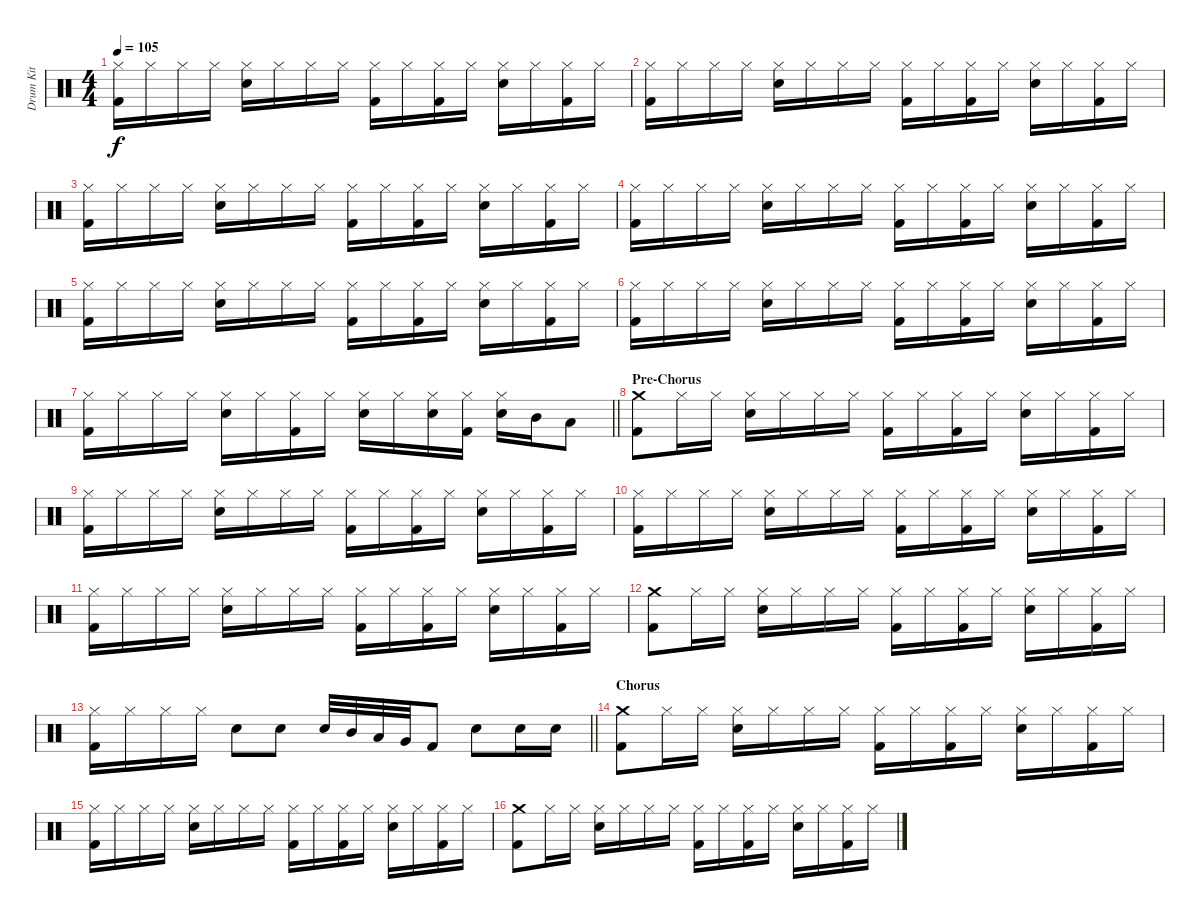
\track ("Drum Kit" "Drum Kit") {instrument percussion}
\staff {score}
\articulation defaults
\ts (4 4)
\tempo 105
\clef neutral
\ks c
("Hi-Hat (closed)" "Kick (hit) 2").16{dy f} "Hi-Hat (closed)".16 "Hi-Hat (closed)".16 "Hi-Hat (closed)".16 ("Hi-Hat (closed)" "Electric Snare (hit)").16 "Hi-Hat (closed)".16 "Hi-Hat (closed)".16 "Hi-Hat (closed)".16 ("Hi-Hat (closed)" "Kick (hit) 2").16 "Hi-Hat (closed)".16 ("Hi-Hat (closed)" "Kick (hit) 2").16 "Hi-Hat (closed)".16 ("Hi-Hat (closed)" "Electric Snare (hit)").16 "Hi-Hat (closed)".16 ("Hi-Hat (closed)" "Kick (hit) 2").16 "Hi-Hat (closed)".16 |
("Hi-Hat (closed)" "Kick (hit) 2").16 "Hi-Hat (closed)".16 "Hi-Hat (closed)".16 "Hi-Hat (closed)".16 ("Hi-Hat (closed)" "Electric Snare (hit)").16 "Hi-Hat (closed)".16 "Hi-Hat (closed)".16 "Hi-Hat (closed)".16 ("Hi-Hat (closed)" "Kick (hit) 2").16 "Hi-Hat (closed)".16 ("Hi-Hat (closed)" "Kick (hit) 2").16 "Hi-Hat (closed)".16 ("Hi-Hat (closed)" "Electric Snare (hit)").16 "Hi-Hat (closed)".16 ("Hi-Hat (closed)" "Kick (hit) 2").16 "Hi-Hat (closed)".16 |
("Hi-Hat (closed)" "Kick (hit) 2").16 "Hi-Hat (closed)".16 "Hi-Hat (closed)".16 "Hi-Hat (closed)".16 ("Hi-Hat (closed)" "Electric Snare (hit)").16 "Hi-Hat (closed)".16 "Hi-Hat (closed)".16 "Hi-Hat (closed)".16 ("Hi-Hat (closed)" "Kick (hit) 2").16 "Hi-Hat (closed)".16 ("Hi-Hat (closed)" "Kick (hit) 2").16 "Hi-Hat (closed)".16 ("Hi-Hat (closed)" "Electric Snare (hit)").16 "Hi-Hat (closed)".16 ("Hi-Hat (closed)" "Kick (hit) 2").16 "Hi-Hat (closed)".16 |
("Hi-Hat (closed)" "Kick (hit) 2").16 "Hi-Hat (closed)".16 "Hi-Hat (closed)".16 "Hi-Hat (closed)".16 ("Hi-Hat (closed)" "Electric Snare (hit)").16 "Hi-Hat (closed)".16 "Hi-Hat (closed)".16 "Hi-Hat (closed)".16 ("Hi-Hat (closed)" "Kick (hit) 2").16 "Hi-Hat (closed)".16 ("Hi-Hat (closed)" "Kick (hit) 2").16 "Hi-Hat (closed)".16 ("Hi-Hat (closed)" "Electric Snare (hit)").16 "Hi-Hat (closed)".16 ("Hi-Hat (closed)" "Kick (hit) 2").16 "Hi-Hat (closed)".16 |
("Hi-Hat (closed)" "Kick (hit) 2").16 "Hi-Hat (closed)".16 "Hi-Hat (closed)".16 "Hi-Hat (closed)".16 ("Hi-Hat (closed)" "Electric Snare (hit)").16 "Hi-Hat (closed)".16 "Hi-Hat (closed)".16 "Hi-Hat (closed)".16 ("Hi-Hat (closed)" "Kick (hit) 2").16 "Hi-Hat (closed)".16 ("Hi-Hat (closed)" "Kick (hit) 2").16 "Hi-Hat (closed)".16 ("Hi-Hat (closed)" "Electric Snare (hit)").16 "Hi-Hat (closed)".16 ("Hi-Hat (closed)" "Kick (hit) 2").16 "Hi-Hat (closed)".16 |
("Hi-Hat (closed)" "Kick (hit) 2").16 "Hi-Hat (closed)".16 "Hi-Hat (closed)".16 "Hi-Hat (closed)".16 ("Hi-Hat (closed)" "Electric Snare (hit)").16 "Hi-Hat (closed)".16 "Hi-Hat (closed)".16 "Hi-Hat (closed)".16 ("Hi-Hat (closed)" "Kick (hit) 2").16 "Hi-Hat (closed)".16 ("Hi-Hat (closed)" "Kick (hit) 2").16 "Hi-Hat (closed)".16 ("Hi-Hat (closed)" "Electric Snare (hit)").16 "Hi-Hat (closed)".16 ("Hi-Hat (closed)" "Kick (hit) 2").16 "Hi-Hat (closed)".16 |
\barLineRight lightlight
("Hi-Hat (closed)" "Kick (hit) 2").16 "Hi-Hat (closed)".16 "Hi-Hat (closed)".16 "Hi-Hat (closed)".16 ("Hi-Hat (closed)" "Electric Snare (hit)").16 "Hi-Hat (closed)".16 ("Hi-Hat (closed)" "Kick (hit) 2").16 "Hi-Hat (closed)".16 ("Hi-Hat (closed)" "Electric Snare (hit)").16 "Hi-Hat (closed)".16 ("Hi-Hat (closed)" "Electric Snare (hit)").16 ("Hi-Hat (closed)" "Kick (hit) 2").16 ("Hi-Hat (closed)" "Electric Snare (hit)").16 "Mid Tom (hit)".16 "Low Tom (hit)".8 |
\section ("" "Pre-Chorus")
("Crash medium (hit)" "Kick (hit) 2").8 "Hi-Hat (closed)".16 "Hi-Hat (closed)".16 ("Hi-Hat (closed)" "Electric Snare (hit)").16 "Hi-Hat (closed)".16 "Hi-Hat (closed)".16 "Hi-Hat (closed)".16 ("Hi-Hat (closed)" "Kick (hit) 2").16 "Hi-Hat (closed)".16 ("Hi-Hat (closed)" "Kick (hit) 2").16 "Hi-Hat (closed)".16 ("Hi-Hat (closed)" "Electric Snare (hit)").16 "Hi-Hat (closed)".16 ("Hi-Hat (closed)" "Kick (hit) 2").16 "Hi-Hat (closed)".16 |
("Hi-Hat (closed)" "Kick (hit) 2").16 "Hi-Hat (closed)".16 "Hi-Hat (closed)".16 "Hi-Hat (closed)".16 ("Hi-Hat (closed)" "Electric Snare (hit)").16 "Hi-Hat (closed)".16 "Hi-Hat (closed)".16 "Hi-Hat (closed)".16 ("Hi-Hat (closed)" "Kick (hit) 2").16 "Hi-Hat (closed)".16 ("Hi-Hat (closed)" "Kick (hit) 2").16 "Hi-Hat (closed)".16 ("Hi-Hat (closed)" "Electric Snare (hit)").16 "Hi-Hat (closed)".16 ("Hi-Hat (closed)" "Kick (hit) 2").16 "Hi-Hat (closed)".16 |
("Hi-Hat (closed)" "Kick (hit) 2").16 "Hi-Hat (closed)".16 "Hi-Hat (closed)".16 "Hi-Hat (closed)".16 ("Hi-Hat (closed)" "Electric Snare (hit)").16 "Hi-Hat (closed)".16 "Hi-Hat (closed)".16 "Hi-Hat (closed)".16 ("Hi-Hat (closed)" "Kick (hit) 2").16 "Hi-Hat (closed)".16 ("Hi-Hat (closed)" "Kick (hit) 2").16 "Hi-Hat (closed)".16 ("Hi-Hat (closed)" "Electric Snare (hit)").16 "Hi-Hat (closed)".16 ("Hi-Hat (closed)" "Kick (hit) 2").16 "Hi-Hat (closed)".16 |
("Hi-Hat (closed)" "Kick (hit) 2").16 "Hi-Hat (closed)".16 "Hi-Hat (closed)".16 "Hi-Hat (closed)".16 ("Hi-Hat (closed)" "Electric Snare (hit)").16 "Hi-Hat (closed)".16 "Hi-Hat (closed)".16 "Hi-Hat (closed)".16 ("Hi-Hat (closed)" "Kick (hit) 2").16 "Hi-Hat (closed)".16 ("Hi-Hat (closed)" "Kick (hit) 2").16 "Hi-Hat (closed)".16 ("Hi-Hat (closed)" "Electric Snare (hit)").16 "Hi-Hat (closed)".16 ("Hi-Hat (closed)" "Kick (hit) 2").16 "Hi-Hat (closed)".16 |
("Crash medium (hit)" "Kick (hit) 2").8 "Hi-Hat (closed)".16 "Hi-Hat (closed)".16 ("Hi-Hat (closed)" "Electric Snare (hit)").16 "Hi-Hat (closed)".16 "Hi-Hat (closed)".16 "Hi-Hat (closed)".16 ("Hi-Hat (closed)" "Kick (hit) 2").16 "Hi-Hat (closed)".16 ("Hi-Hat (closed)" "Kick (hit) 2").16 "Hi-Hat (closed)".16 ("Hi-Hat (closed)" "Electric Snare (hit)").16 "Hi-Hat (closed)".16 ("Hi-Hat (closed)" "Kick (hit) 2").16 "Hi-Hat (closed)".16 |
\barLineRight lightlight
("Hi-Hat (closed)" "Kick (hit) 2").16 "Hi-Hat (closed)".16 "Hi-Hat (closed)".16 "Hi-Hat (closed)".16 "Electric Snare (hit)".8 "Electric Snare (hit)".8 "Electric Snare (hit)".32 "Mid Tom (hit)".32 "Low Tom (hit)".32 "Very Low Tom (hit)".32 "Kick (hit) 2".8 "Electric Snare (hit)".8 "Electric Snare (hit)".16 "Electric Snare (hit)".16 |
\section ("" "Chorus")
("Crash medium (hit)" "Kick (hit) 2").8 "Hi-Hat (closed)".16 "Hi-Hat (closed)".16 ("Hi-Hat (closed)" "Electric Snare (hit)").16 "Hi-Hat (closed)".16 "Hi-Hat (closed)".16 "Hi-Hat (closed)".16 ("Hi-Hat (closed)" "Kick (hit) 2").16 "Hi-Hat (closed)".16 ("Hi-Hat (closed)" "Kick (hit) 2").16 "Hi-Hat (closed)".16 ("Hi-Hat (closed)" "Electric Snare (hit)").16 "Hi-Hat (closed)".16 ("Hi-Hat (closed)" "Kick (hit) 2").16 "Hi-Hat (closed)".16 |
("Hi-Hat (closed)" "Kick (hit) 2").16 "Hi-Hat (closed)".16 "Hi-Hat (closed)".16 "Hi-Hat (closed)".16 ("Hi-Hat (closed)" "Electric Snare (hit)").16 "Hi-Hat (closed)".16 "Hi-Hat (closed)".16 "Hi-Hat (closed)".16 ("Hi-Hat (closed)" "Kick (hit) 2").16 "Hi-Hat (closed)".16 ("Hi-Hat (closed)" "Kick (hit) 2").16 "Hi-Hat (closed)".16 ("Hi-Hat (closed)" "Electric Snare (hit)").16 "Hi-Hat (closed)".16 ("Hi-Hat (closed)" "Kick (hit) 2").16 "Hi-Hat (closed)".16 |
("Crash medium (hit)" "Kick (hit) 2").8 "Hi-Hat (closed)".16 "Hi-Hat (closed)".16 ("Hi-Hat (closed)" "Electric Snare (hit)").16 "Hi-Hat (closed)".16 "Hi-Hat (closed)".16 "Hi-Hat (closed)".16 ("Hi-Hat (closed)" "Kick (hit) 2").16 "Hi-Hat (closed)".16 ("Hi-Hat (closed)" "Kick (hit) 2").16 "Hi-Hat (closed)".16 ("Hi-Hat (closed)" "Electric Snare (hit)").16 "Hi-Hat (closed)".16 ("Hi-Hat (closed)" "Kick (hit) 2").16 "Hi-Hat (closed)".16
